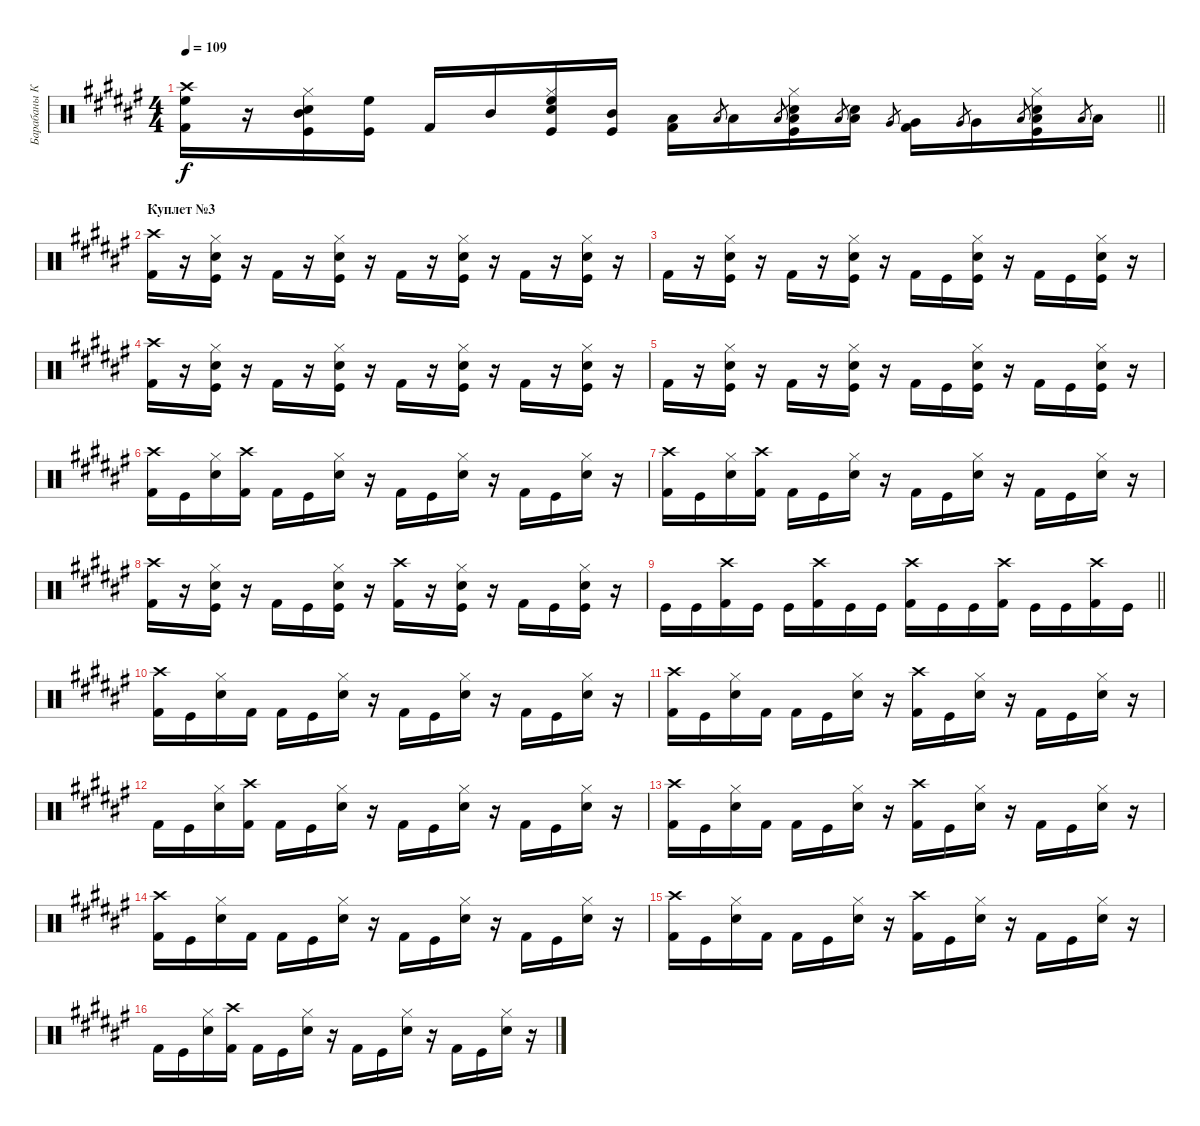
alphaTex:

\track ("Барабаны Кольян" "Барабаны К") {instrument percussion}
\staff {score}
\articulation defaults
\ts (4 4)
\tempo 109
\clef neutral
\barLineRight lightlight
\ks f#
("Crash high (hit)" "High Floor Tom (hit)" "Kick (hit) 2").16{dy f} r.16 ("Hi-Hat (closed)" "Snare (hit) 2" "Mid Tom (hit)" "Kick (hit)").16 ("High Floor Tom (hit)" "Kick (hit)").16 "Kick (hit) 2".16 "Mid Tom (hit)".16 ("Hi-Hat (closed)" "Snare (hit) 2" "High Floor Tom (hit)" "Kick (hit)").16 ("Mid Tom (hit)" "Kick (hit)").16 ("Low Tom (hit)" "Kick (hit) 2").16 "Low Tom (hit)".8{gr} "Low Tom (hit)".16 "Low Tom (hit)".8{gr} ("Hi-Hat (closed)" "Snare (hit) 2" "Low Tom (hit)" "Kick (hit)").16 "Low Tom (hit)".8{gr} ("Snare (hit) 2" "Low Tom (hit)").16 "Very Low Tom (hit)".8{gr} ("Very Low Tom (hit)" "Kick (hit) 2").16 "Very Low Tom (hit)".8{gr} "Very Low Tom (hit)".16 "Low Floor Tom (hit)".8{gr} ("Hi-Hat (closed)" "Snare (hit) 2" "Low Floor Tom (hit)" "Kick (hit)").16 "Low Floor Tom (hit)".8{gr} "Low Floor Tom (hit)".16 |
\section ("" "Куплет №3")
("Crash high (hit)" "Kick (hit) 2").16 r.16 ("Hi-Hat (closed)" "Snare (hit) 2" "Kick (hit)").16 r.16 "Kick (hit) 2".16 r.16 ("Hi-Hat (closed)" "Snare (hit) 2" "Kick (hit)").16 r.16 "Kick (hit) 2".16 r.16 ("Hi-Hat (closed)" "Snare (hit) 2" "Kick (hit)").16 r.16 "Kick (hit) 2".16 r.16 ("Hi-Hat (closed)" "Snare (hit) 2" "Kick (hit)").16 r.16 |
"Kick (hit) 2".16 r.16 ("Hi-Hat (closed)" "Snare (hit) 2" "Kick (hit)").16 r.16 "Kick (hit) 2".16 r.16 ("Hi-Hat (closed)" "Snare (hit) 2" "Kick (hit)").16 r.16 "Kick (hit) 2".16 "Kick (hit)".16 ("Hi-Hat (closed)" "Snare (hit) 2" "Kick (hit)").16 r.16 "Kick (hit) 2".16 "Kick (hit)".16 ("Hi-Hat (closed)" "Snare (hit) 2" "Kick (hit)").16 r.16 |
("Crash high (hit)" "Kick (hit) 2").16 r.16 ("Hi-Hat (closed)" "Snare (hit) 2" "Kick (hit)").16 r.16 "Kick (hit) 2".16 r.16 ("Hi-Hat (closed)" "Snare (hit) 2" "Kick (hit)").16 r.16 "Kick (hit) 2".16 r.16 ("Hi-Hat (closed)" "Snare (hit) 2" "Kick (hit)").16 r.16 "Kick (hit) 2".16 r.16 ("Hi-Hat (closed)" "Snare (hit) 2" "Kick (hit)").16 r.16 |
"Kick (hit) 2".16 r.16 ("Hi-Hat (closed)" "Snare (hit) 2" "Kick (hit)").16 r.16 "Kick (hit) 2".16 r.16 ("Hi-Hat (closed)" "Snare (hit) 2" "Kick (hit)").16 r.16 "Kick (hit) 2".16 "Kick (hit)".16 ("Hi-Hat (closed)" "Snare (hit) 2" "Kick (hit)").16 r.16 "Kick (hit) 2".16 "Kick (hit)".16 ("Hi-Hat (closed)" "Snare (hit) 2" "Kick (hit)").16 r.16 |
("Crash high (hit)" "Kick (hit) 2").16 "Kick (hit)".16 ("Hi-Hat (closed)" "Snare (hit) 2").16 ("Crash high (hit)" "Kick (hit) 2").16 "Kick (hit) 2".16 "Kick (hit)".16 ("Hi-Hat (closed)" "Snare (hit) 2").16 r.16 "Kick (hit) 2".16 "Kick (hit)".16 ("Hi-Hat (closed)" "Snare (hit) 2").16 r.16 "Kick (hit) 2".16 "Kick (hit)".16 ("Hi-Hat (closed)" "Snare (hit) 2").16 r.16 |
("Crash high (hit)" "Kick (hit) 2").16 "Kick (hit)".16 ("Hi-Hat (closed)" "Snare (hit) 2").16 ("Crash high (hit)" "Kick (hit) 2").16 "Kick (hit) 2".16 "Kick (hit)".16 ("Hi-Hat (closed)" "Snare (hit) 2").16 r.16 "Kick (hit) 2".16 "Kick (hit)".16 ("Hi-Hat (closed)" "Snare (hit) 2").16 r.16 "Kick (hit) 2".16 "Kick (hit)".16 ("Hi-Hat (closed)" "Snare (hit) 2").16 r.16 |
("Crash high (hit)" "Kick (hit) 2").16 r.16 ("Hi-Hat (closed)" "Snare (hit) 2" "Kick (hit)").16 r.16 "Kick (hit) 2".16 "Kick (hit)".16 ("Hi-Hat (closed)" "Snare (hit) 2" "Kick (hit)").16 r.16 ("Crash high (hit)" "Kick (hit) 2").16 r.16 ("Hi-Hat (closed)" "Snare (hit) 2" "Kick (hit)").16 r.16 "Kick (hit) 2".16 "Kick (hit)".16 ("Hi-Hat (closed)" "Snare (hit) 2" "Kick (hit)").16 r.16 |
\barLineRight lightlight "Kick (hit)".16 "Kick (hit)".16
("Crash high (hit)" "Kick (hit) 2").16 "Kick (hit)".16 "Kick (hit)".16 ("Crash high (hit)" "Kick (hit) 2").16 "Kick (hit)".16 "Kick (hit)".16 ("Crash high (hit)" "Kick (hit) 2").16 "Kick (hit)".16 "Kick (hit)".16 ("Crash high (hit)" "Kick (hit) 2").16 "Kick (hit)".16 "Kick (hit)".16 ("Crash high (hit)" "Kick (hit) 2").16 "Kick (hit)".16 |
("Crash high (hit)" "Kick (hit) 2").16 "Kick (hit)".16 ("Hi-Hat (closed)" "Snare (hit) 2").16 "Kick (hit) 2".16 "Kick (hit) 2".16 "Kick (hit)".16 ("Hi-Hat (closed)" "Snare (hit) 2").16 r.16 "Kick (hit) 2".16 "Kick (hit)".16 ("Hi-Hat (closed)" "Snare (hit) 2").16 r.16 "Kick (hit) 2".16 "Kick (hit)".16 ("Hi-Hat (closed)" "Snare (hit) 2").16 r.16 |
("Crash high (hit)" "Kick (hit) 2").16 "Kick (hit)".16 ("Hi-Hat (closed)" "Snare (hit) 2").16 "Kick (hit) 2".16 "Kick (hit) 2".16 "Kick (hit)".16 ("Hi-Hat (closed)" "Snare (hit) 2").16 r.16 ("Crash high (hit)" "Kick (hit) 2").16 "Kick (hit)".16 ("Hi-Hat (closed)" "Snare (hit) 2").16 r.16 "Kick (hit) 2".16 "Kick (hit)".16 ("Hi-Hat (closed)" "Snare (hit) 2").16 r.16 |
"Kick (hit) 2".16 "Kick (hit)".16 ("Hi-Hat (closed)" "Snare (hit) 2").16 ("Crash high (hit)" "Kick (hit) 2").16 "Kick (hit) 2".16 "Kick (hit)".16 ("Hi-Hat (closed)" "Snare (hit) 2").16 r.16 "Kick (hit) 2".16 "Kick (hit)".16 ("Hi-Hat (closed)" "Snare (hit) 2").16 r.16 "Kick (hit) 2".16 "Kick (hit)".16 ("Hi-Hat (closed)" "Snare (hit) 2").16 r.16 |
("Crash high (hit)" "Kick (hit) 2").16 "Kick (hit)".16 ("Hi-Hat (closed)" "Snare (hit) 2").16 "Kick (hit) 2".16 "Kick (hit) 2".16 "Kick (hit)".16 ("Hi-Hat (closed)" "Snare (hit) 2").16 r.16 ("Crash high (hit)" "Kick (hit) 2").16 "Kick (hit)".16 ("Hi-Hat (closed)" "Snare (hit) 2").16 r.16 "Kick (hit) 2".16 "Kick (hit)".16 ("Hi-Hat (closed)" "Snare (hit) 2").16 r.16 |
("Crash high (hit)" "Kick (hit) 2").16 "Kick (hit)".16 ("Hi-Hat (closed)" "Snare (hit) 2").16 "Kick (hit) 2".16 "Kick (hit) 2".16 "Kick (hit)".16 ("Hi-Hat (closed)" "Snare (hit) 2").16 r.16 "Kick (hit) 2".16 "Kick (hit)".16 ("Hi-Hat (closed)" "Snare (hit) 2").16 r.16 "Kick (hit) 2".16 "Kick (hit)".16 ("Hi-Hat (closed)" "Snare (hit) 2").16 r.16 |
("Crash high (hit)" "Kick (hit) 2").16 "Kick (hit)".16 ("Hi-Hat (closed)" "Snare (hit) 2").16 "Kick (hit) 2".16 "Kick (hit) 2".16 "Kick (hit)".16 ("Hi-Hat (closed)" "Snare (hit) 2").16 r.16 ("Crash high (hit)" "Kick (hit) 2").16 "Kick (hit)".16 ("Hi-Hat (closed)" "Snare (hit) 2").16 r.16 "Kick (hit) 2".16 "Kick (hit)".16 ("Hi-Hat (closed)" "Snare (hit) 2").16 r.16 |
"Kick (hit) 2".16 "Kick (hit)".16 ("Hi-Hat (closed)" "Snare (hit) 2").16 ("Crash high (hit)" "Kick (hit) 2").16 "Kick (hit) 2".16 "Kick (hit)".16 ("Hi-Hat (closed)" "Snare (hit) 2").16 r.16 "Kick (hit) 2".16 "Kick (hit)".16 ("Hi-Hat (closed)" "Snare (hit) 2").16 r.16 "Kick (hit) 2".16 "Kick (hit)".16 ("Hi-Hat (closed)" "Snare (hit) 2").16 r.16
